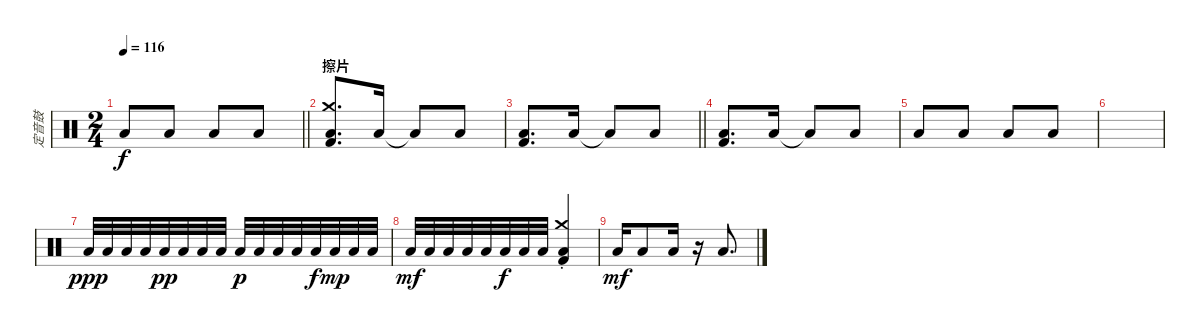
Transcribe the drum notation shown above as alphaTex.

\track ("定音鼓" "定音鼓") {instrument percussion}
\staff {score}
\articulation defaults
\ts (2 4)
\tempo 116
\clef neutral
\barLineRight lightlight
\ks c "Low Floor Tom (hit)".8{dy f} "Low Floor Tom (hit)".8 "Low Floor Tom (hit)".8 "Low Floor Tom (hit)".8
|
\section ("" "擦片")
("Crash medium (hit)" "Low Floor Tom (hit)" "Kick (hit) 2").8{d} "Low Floor Tom (hit)".16 "Low Floor Tom (hit)"{t}.8 "Low Floor Tom (hit)".8 |
\barLineRight lightlight
("Low Floor Tom (hit)" "Kick (hit) 2").8{d} "Low Floor Tom (hit)".16 "Low Floor Tom (hit)"{t}.8 "Low Floor Tom (hit)".8 |
("Low Floor Tom (hit)" "Kick (hit) 2").8{d} "Low Floor Tom (hit)".16 "Low Floor Tom (hit)"{t}.8 "Low Floor Tom (hit)".8 |
"Low Floor Tom (hit)".8 "Low Floor Tom (hit)".8 "Low Floor Tom (hit)".8 "Low Floor Tom (hit)".8 |
|
"Low Floor Tom (hit)".32{dy ppp} "Low Floor Tom (hit)".32 "Low Floor Tom (hit)".32 "Low Floor Tom (hit)".32 "Low Floor Tom (hit)".32{dy pp} "Low Floor Tom (hit)".32 "Low Floor Tom (hit)".32 "Low Floor Tom (hit)".32 "Low Floor Tom (hit)".32{dy p} "Low Floor Tom (hit)".32 "Low Floor Tom (hit)".32 "Low Floor Tom (hit)".32 "Low Floor Tom (hit)".32{dy f} "Low Floor Tom (hit)".32{dy mp} "Low Floor Tom (hit)".32 "Low Floor Tom (hit)".32 |
"Low Floor Tom (hit)".32{dy mf} "Low Floor Tom (hit)".32 "Low Floor Tom (hit)".32 "Low Floor Tom (hit)".32 "Low Floor Tom (hit)".32 "Low Floor Tom (hit)".32{dy f} "Low Floor Tom (hit)".32 "Low Floor Tom (hit)".32 ("Crash medium (hit)"{st} "Low Floor Tom (hit)"{st} "Kick (hit) 2"{st}).4 |
"Low Floor Tom (hit)".16{dy mf} "Low Floor Tom (hit)".8 "Low Floor Tom (hit)".16 r.16 "Low Floor Tom (hit)".8{d}
